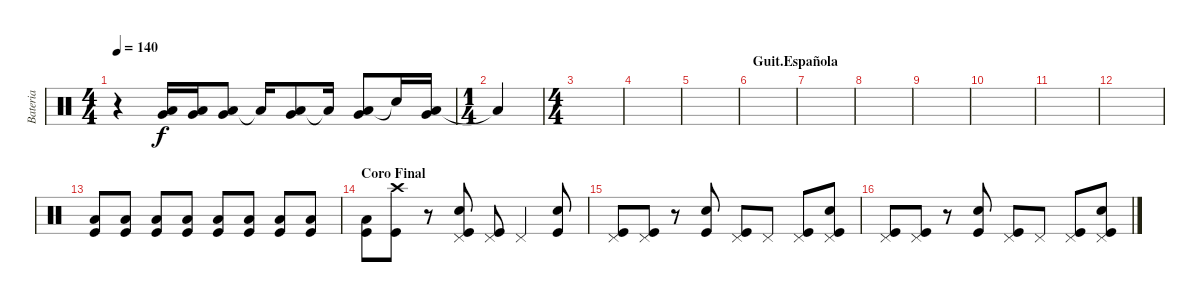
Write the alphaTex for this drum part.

\track ("Bateria" "Bateria") {instrument percussion}
\staff {score}
\articulation defaults
\ts (4 4)
\tempo 140
\clef neutral
\ks c
r.4{dy f} ("Low Floor Tom (hit)" "Very Low Tom (hit)").16 ("Low Floor Tom (hit)" "Very Low Tom (hit)").16 ("Low Floor Tom (hit)" "Very Low Tom (hit)").8 "Low Floor Tom (hit)"{t}.16 ("Low Floor Tom (hit)" "Very Low Tom (hit)").8 "Low Floor Tom (hit)"{t}.16 ("Low Floor Tom (hit)" "Very Low Tom (hit)").8 "Snare (hit)"{t}.16 ("Low Floor Tom (hit)" "Very Low Tom (hit)").16 |
\ts (1 4)
"Low Floor Tom (hit)"{t}.4 |
\ts (4 4)
|
|
|
\section ("" "Guit.Española")
|
|
|
|
\section ("" "")
|
|
|
("Kick (hit)" "Low Floor Tom (hit)").8{volume 15} ("Kick (hit)" "Low Floor Tom (hit)").8 ("Kick (hit)" "Low Floor Tom (hit)").8 ("Kick (hit)" "Low Floor Tom (hit)").8 ("Kick (hit)" "Low Floor Tom (hit)").8 ("Kick (hit)" "Low Floor Tom (hit)").8 ("Kick (hit)" "Low Floor Tom (hit)").8 ("Kick (hit)" "Low Floor Tom (hit)").8 |
\section ("" "Coro Final")
("Kick (hit)" "Low Floor Tom (hit)").8 ("Kick (hit)" "Crash high (hit)").8 r.8 ("Kick (hit)" "Snare (hit) 2" "Pedal Hi-Hat (hit)").8 ("Kick (hit)" "Pedal Hi-Hat (hit)").8 "Pedal Hi-Hat (hit)".4 ("Kick (hit)" "Snare (hit) 2").8 |
("Kick (hit)" "Pedal Hi-Hat (hit)").8 ("Kick (hit)" "Pedal Hi-Hat (hit)").8 r.8 ("Kick (hit)" "Snare (hit) 2").8 ("Kick (hit)" "Pedal Hi-Hat (hit)").8 "Pedal Hi-Hat (hit)".8 ("Kick (hit)" "Pedal Hi-Hat (hit)").8 ("Kick (hit)" "Snare (hit) 2" "Pedal Hi-Hat (hit)").8 |
("Kick (hit)" "Pedal Hi-Hat (hit)").8 ("Kick (hit)" "Pedal Hi-Hat (hit)").8 r.8 ("Kick (hit)" "Snare (hit) 2").8 ("Kick (hit)" "Pedal Hi-Hat (hit)").8 "Pedal Hi-Hat (hit)".8 ("Kick (hit)" "Pedal Hi-Hat (hit)").8 ("Kick (hit)" "Snare (hit) 2" "Pedal Hi-Hat (hit)").8
